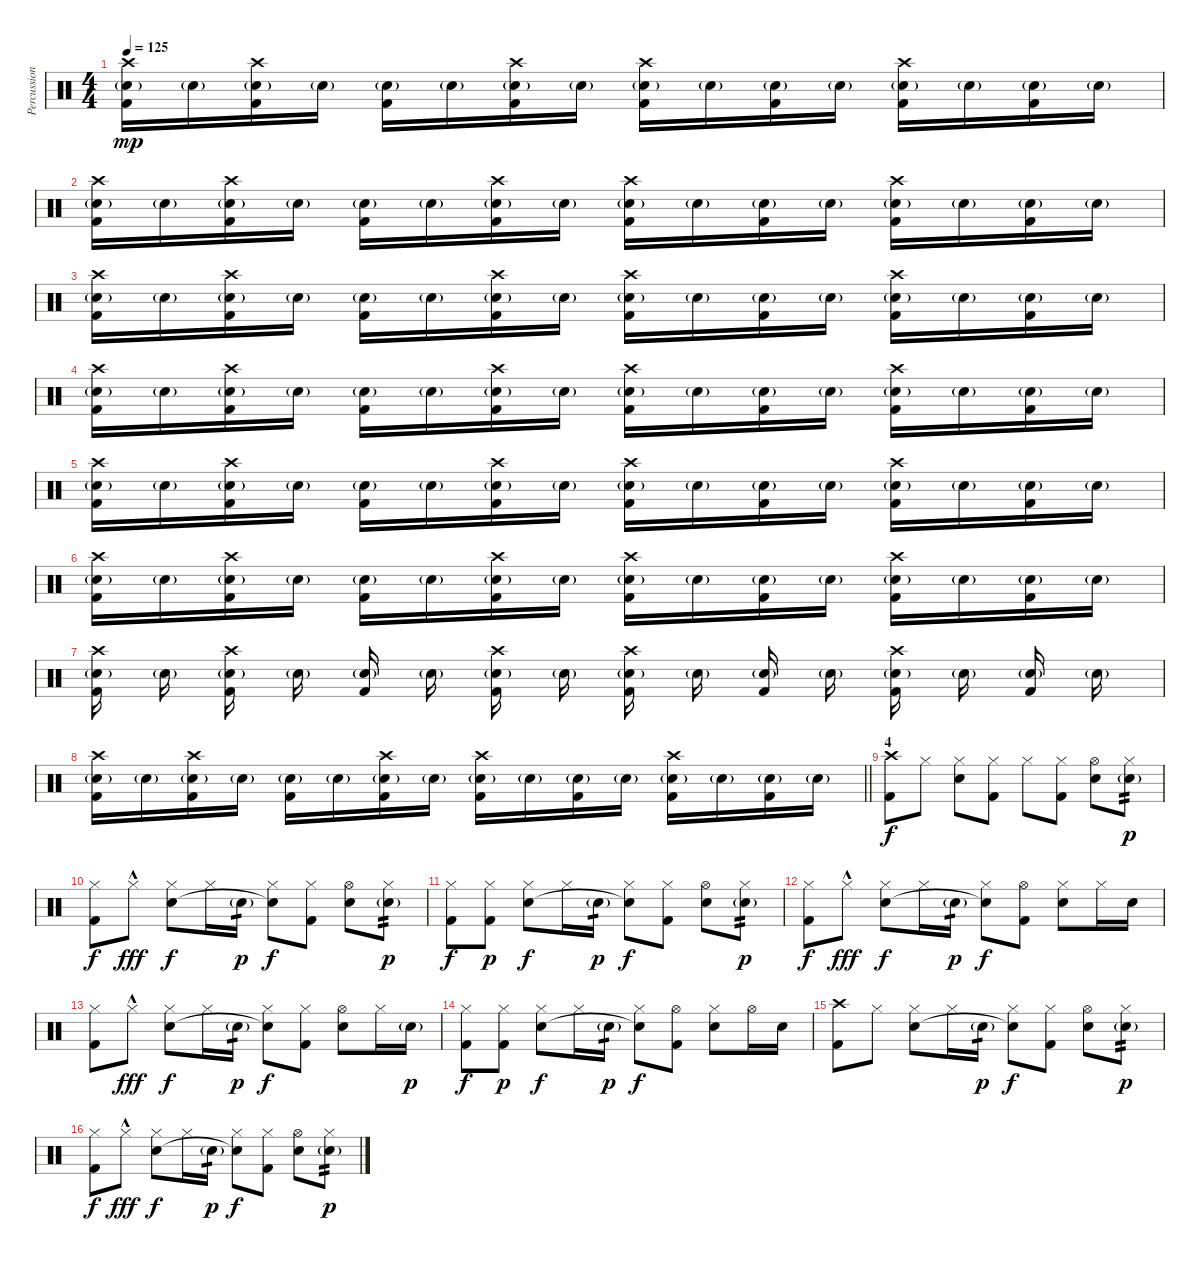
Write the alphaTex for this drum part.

\track ("Percussion" "Percussion") {instrument percussion}
\staff {score}
\articulation defaults
\ts (4 4)
\tempo 125
\clef neutral
\ks c
("Crash high (hit)" "Snare (hit) 2"{g} "Kick (hit) 2").16{dy mp} "Snare (hit) 2"{g}.16 ("Crash high (hit)" "Snare (hit) 2"{g} "Kick (hit) 2").16 "Snare (hit) 2"{g}.16 ("Snare (hit) 2"{g} "Kick (hit) 2").16 "Snare (hit) 2"{g}.16 ("Crash high (hit)" "Snare (hit) 2"{g} "Kick (hit) 2").16 "Snare (hit) 2"{g}.16 ("Crash high (hit)" "Snare (hit) 2"{g} "Kick (hit) 2").16 "Snare (hit) 2"{g}.16 ("Snare (hit) 2"{g} "Kick (hit) 2").16 "Snare (hit) 2"{g}.16 ("Crash high (hit)" "Snare (hit) 2"{g} "Kick (hit) 2").16 "Snare (hit) 2"{g}.16 ("Snare (hit) 2"{g} "Kick (hit) 2").16 "Snare (hit) 2"{g}.16 |
("Crash high (hit)" "Snare (hit) 2"{g} "Kick (hit) 2").16 "Snare (hit) 2"{g}.16 ("Crash high (hit)" "Snare (hit) 2"{g} "Kick (hit) 2").16 "Snare (hit) 2"{g}.16 ("Snare (hit) 2"{g} "Kick (hit) 2").16 "Snare (hit) 2"{g}.16 ("Crash high (hit)" "Snare (hit) 2"{g} "Kick (hit) 2").16 "Snare (hit) 2"{g}.16 ("Crash high (hit)" "Snare (hit) 2"{g} "Kick (hit) 2").16 "Snare (hit) 2"{g}.16 ("Snare (hit) 2"{g} "Kick (hit) 2").16 "Snare (hit) 2"{g}.16 ("Crash high (hit)" "Snare (hit) 2"{g} "Kick (hit) 2").16 "Snare (hit) 2"{g}.16 ("Snare (hit) 2"{g} "Kick (hit) 2").16 "Snare (hit) 2"{g}.16 |
("Crash high (hit)" "Snare (hit) 2"{g} "Kick (hit) 2").16 "Snare (hit) 2"{g}.16 ("Crash high (hit)" "Snare (hit) 2"{g} "Kick (hit) 2").16 "Snare (hit) 2"{g}.16 ("Snare (hit) 2"{g} "Kick (hit) 2").16 "Snare (hit) 2"{g}.16 ("Crash high (hit)" "Snare (hit) 2"{g} "Kick (hit) 2").16 "Snare (hit) 2"{g}.16 ("Crash high (hit)" "Snare (hit) 2"{g} "Kick (hit) 2").16 "Snare (hit) 2"{g}.16 ("Snare (hit) 2"{g} "Kick (hit) 2").16 "Snare (hit) 2"{g}.16 ("Crash high (hit)" "Snare (hit) 2"{g} "Kick (hit) 2").16 "Snare (hit) 2"{g}.16 ("Snare (hit) 2"{g} "Kick (hit) 2").16 "Snare (hit) 2"{g}.16 |
("Crash high (hit)" "Snare (hit) 2"{g} "Kick (hit) 2").16 "Snare (hit) 2"{g}.16 ("Crash high (hit)" "Snare (hit) 2"{g} "Kick (hit) 2").16 "Snare (hit) 2"{g}.16 ("Snare (hit) 2"{g} "Kick (hit) 2").16 "Snare (hit) 2"{g}.16 ("Crash high (hit)" "Snare (hit) 2"{g} "Kick (hit) 2").16 "Snare (hit) 2"{g}.16 ("Crash high (hit)" "Snare (hit) 2"{g} "Kick (hit) 2").16 "Snare (hit) 2"{g}.16 ("Snare (hit) 2"{g} "Kick (hit) 2").16 "Snare (hit) 2"{g}.16 ("Crash high (hit)" "Snare (hit) 2"{g} "Kick (hit) 2").16 "Snare (hit) 2"{g}.16 ("Snare (hit) 2"{g} "Kick (hit) 2").16 "Snare (hit) 2"{g}.16 |
("Crash high (hit)" "Snare (hit) 2"{g} "Kick (hit) 2").16 "Snare (hit) 2"{g}.16 ("Crash high (hit)" "Snare (hit) 2"{g} "Kick (hit) 2").16 "Snare (hit) 2"{g}.16 ("Snare (hit) 2"{g} "Kick (hit) 2").16 "Snare (hit) 2"{g}.16 ("Crash high (hit)" "Snare (hit) 2"{g} "Kick (hit) 2").16 "Snare (hit) 2"{g}.16 ("Crash high (hit)" "Snare (hit) 2"{g} "Kick (hit) 2").16 "Snare (hit) 2"{g}.16 ("Snare (hit) 2"{g} "Kick (hit) 2").16 "Snare (hit) 2"{g}.16 ("Crash high (hit)" "Snare (hit) 2"{g} "Kick (hit) 2").16 "Snare (hit) 2"{g}.16 ("Snare (hit) 2"{g} "Kick (hit) 2").16 "Snare (hit) 2"{g}.16 |
("Crash high (hit)" "Snare (hit) 2"{g} "Kick (hit) 2").16 "Snare (hit) 2"{g}.16 ("Crash high (hit)" "Snare (hit) 2"{g} "Kick (hit) 2").16 "Snare (hit) 2"{g}.16 ("Snare (hit) 2"{g} "Kick (hit) 2").16 "Snare (hit) 2"{g}.16 ("Crash high (hit)" "Snare (hit) 2"{g} "Kick (hit) 2").16 "Snare (hit) 2"{g}.16 ("Crash high (hit)" "Snare (hit) 2"{g} "Kick (hit) 2").16 "Snare (hit) 2"{g}.16 ("Snare (hit) 2"{g} "Kick (hit) 2").16 "Snare (hit) 2"{g}.16 ("Crash high (hit)" "Snare (hit) 2"{g} "Kick (hit) 2").16 "Snare (hit) 2"{g}.16 ("Snare (hit) 2"{g} "Kick (hit) 2").16 "Snare (hit) 2"{g}.16 |
("Crash high (hit)" "Snare (hit) 2"{g} "Kick (hit) 2").16{beam split} "Snare (hit) 2"{g}.16{beam split} ("Crash high (hit)" "Snare (hit) 2"{g} "Kick (hit) 2").16{beam split} "Snare (hit) 2"{g}.16 ("Snare (hit) 2"{g} "Kick (hit) 2").16{beam split} "Snare (hit) 2"{g}.16{beam split} ("Crash high (hit)" "Snare (hit) 2"{g} "Kick (hit) 2").16{beam split} "Snare (hit) 2"{g}.16 ("Crash high (hit)" "Snare (hit) 2"{g} "Kick (hit) 2").16{beam split} "Snare (hit) 2"{g}.16{beam split} ("Snare (hit) 2"{g} "Kick (hit) 2").16{beam split} "Snare (hit) 2"{g}.16 ("Crash high (hit)" "Snare (hit) 2"{g} "Kick (hit) 2").16{beam split} "Snare (hit) 2"{g}.16{beam split} ("Snare (hit) 2"{g} "Kick (hit) 2").16{beam split} "Snare (hit) 2"{g}.16 |
\barLineRight lightlight
("Crash high (hit)" "Snare (hit) 2"{g} "Kick (hit) 2").16 "Snare (hit) 2"{g}.16 ("Crash high (hit)" "Snare (hit) 2"{g} "Kick (hit) 2").16 "Snare (hit) 2"{g}.16 ("Snare (hit) 2"{g} "Kick (hit) 2").16 "Snare (hit) 2"{g}.16 ("Crash high (hit)" "Snare (hit) 2"{g} "Kick (hit) 2").16 "Snare (hit) 2"{g}.16 ("Crash high (hit)" "Snare (hit) 2"{g} "Kick (hit) 2").16 "Snare (hit) 2"{g}.16 ("Snare (hit) 2"{g} "Kick (hit) 2").16 "Snare (hit) 2"{g}.16 ("Crash high (hit)" "Snare (hit) 2"{g} "Kick (hit) 2").16 "Snare (hit) 2"{g}.16 ("Snare (hit) 2"{g} "Kick (hit) 2").16 "Snare (hit) 2"{g}.16 |
\section ("" "4")
("Crash high (hit)" "Kick (hit) 2").8{dy f} "Hi-Hat (closed)".8 ("Hi-Hat (closed)" "Snare (hit) 2").8 ("Hi-Hat (closed)" "Kick (hit) 2").8 "Hi-Hat (closed)".8 ("Hi-Hat (closed)" "Kick (hit) 2").8 ("Hi-Hat (open)" "Snare (hit) 2").8 ("Hi-Hat (closed)" "Snare (hit) 2"{g}).8{tp 2 dy p} |
("Hi-Hat (closed)" "Kick (hit) 2").8{dy f} "Hi-Hat (closed)"{hac}.8{dy fff} ("Hi-Hat (closed)" "Snare (hit) 2").8{dy f} "Hi-Hat (closed)".16 "Snare (hit) 2"{g}.16{tp 1 dy p} ("Hi-Hat (closed)" "Snare (hit)"{t}).8{dy f} ("Hi-Hat (closed)" "Kick (hit) 2").8 ("Hi-Hat (open)" "Snare (hit) 2").8 ("Hi-Hat (closed)" "Snare (hit) 2"{g}).8{tp 2 dy p} |
("Hi-Hat (closed)" "Kick (hit) 2").8{dy f} ("Hi-Hat (closed)" "Kick (hit) 2").8{dy p} ("Hi-Hat (closed)" "Snare (hit) 2").8{dy f} "Hi-Hat (closed)".16 "Snare (hit) 2"{g}.16{tp 1 dy p} ("Hi-Hat (closed)" "Snare (hit)"{t}).8{dy f} ("Hi-Hat (closed)" "Kick (hit) 2").8 ("Hi-Hat (open)" "Snare (hit) 2").8 ("Hi-Hat (closed)" "Snare (hit) 2"{g}).8{tp 2 dy p} |
("Hi-Hat (closed)" "Kick (hit) 2").8{dy f} "Hi-Hat (closed)"{hac}.8{dy fff} ("Hi-Hat (closed)" "Snare (hit) 2").8{dy f} "Hi-Hat (closed)".16 "Snare (hit) 2"{g}.16{tp 1 dy p} ("Hi-Hat (closed)" "Snare (hit)"{t}).8{dy f} ("Hi-Hat (open)" "Kick (hit) 2").8 ("Hi-Hat (closed)" "Snare (hit) 2").8 "Hi-Hat (closed)".16 "Snare (hit) 2".16 |
("Hi-Hat (closed)" "Kick (hit) 2").8 "Hi-Hat (closed)"{hac}.8{dy fff} ("Hi-Hat (closed)" "Snare (hit) 2").8{dy f} "Hi-Hat (closed)".16 "Snare (hit) 2"{g}.16{tp 1 dy p} ("Hi-Hat (closed)" "Snare (hit)"{t}).8{dy f} ("Hi-Hat (closed)" "Kick (hit) 2").8 ("Hi-Hat (open)" "Snare (hit) 2").8 "Hi-Hat (closed)".16 "Snare (hit) 2"{g}.16{dy p} |
("Hi-Hat (closed)" "Kick (hit) 2").8{dy f} ("Hi-Hat (closed)" "Kick (hit) 2").8{dy p} ("Hi-Hat (closed)" "Snare (hit) 2").8{dy f} "Hi-Hat (closed)".16 "Snare (hit) 2"{g}.16{tp 1 dy p} ("Hi-Hat (closed)" "Snare (hit)"{t}).8{dy f} ("Hi-Hat (open)" "Kick (hit) 2").8 ("Hi-Hat (closed)" "Snare (hit) 2").8 "Hi-Hat (open)".16 "Snare (hit) 2".16 |
("Crash high (hit)" "Kick (hit) 2").8 "Hi-Hat (closed)".8 ("Hi-Hat (closed)" "Snare (hit) 2").8 "Hi-Hat (closed)".16 "Snare (hit) 2"{g}.16{tp 1 dy p} ("Hi-Hat (closed)" "Snare (hit)"{t}).8{dy f} ("Hi-Hat (closed)" "Kick (hit) 2").8 ("Hi-Hat (open)" "Snare (hit) 2").8 ("Hi-Hat (closed)" "Snare (hit) 2"{g}).8{tp 2 dy p} |
("Hi-Hat (closed)" "Kick (hit) 2").8{dy f} "Hi-Hat (closed)"{hac}.8{dy fff} ("Hi-Hat (closed)" "Snare (hit) 2").8{dy f} "Hi-Hat (closed)".16 "Snare (hit) 2"{g}.16{tp 1 dy p} ("Hi-Hat (closed)" "Snare (hit)"{t}).8{dy f} ("Hi-Hat (closed)" "Kick (hit) 2").8 ("Hi-Hat (open)" "Snare (hit) 2").8 ("Hi-Hat (closed)" "Snare (hit) 2"{g}).8{tp 2 dy p}
